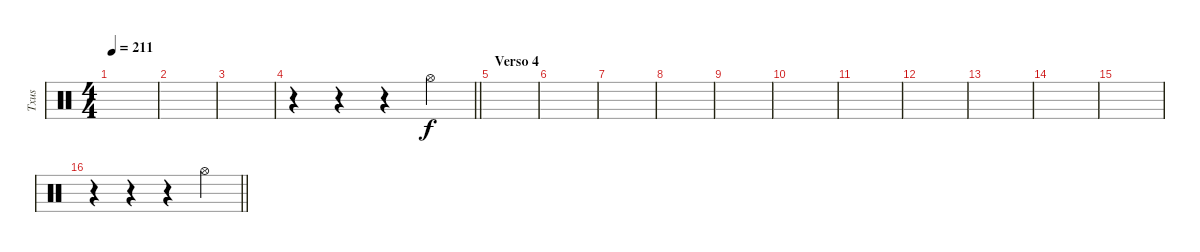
\track ("Txus" "Txus") {instrument percussion}
\staff {score}
\articulation defaults
\ts (4 4)
\tempo 211
\clef neutral
\ks c
|
|
|
\barLineRight lightlight
r.4 r.4 r.4 "Hi-Hat (open)".4 |
\section ("" "Verso 4")
|
|
|
|
|
|
|
|
|
|
|
\barLineRight lightlight
r.4 r.4 r.4 "Hi-Hat (open)".4
